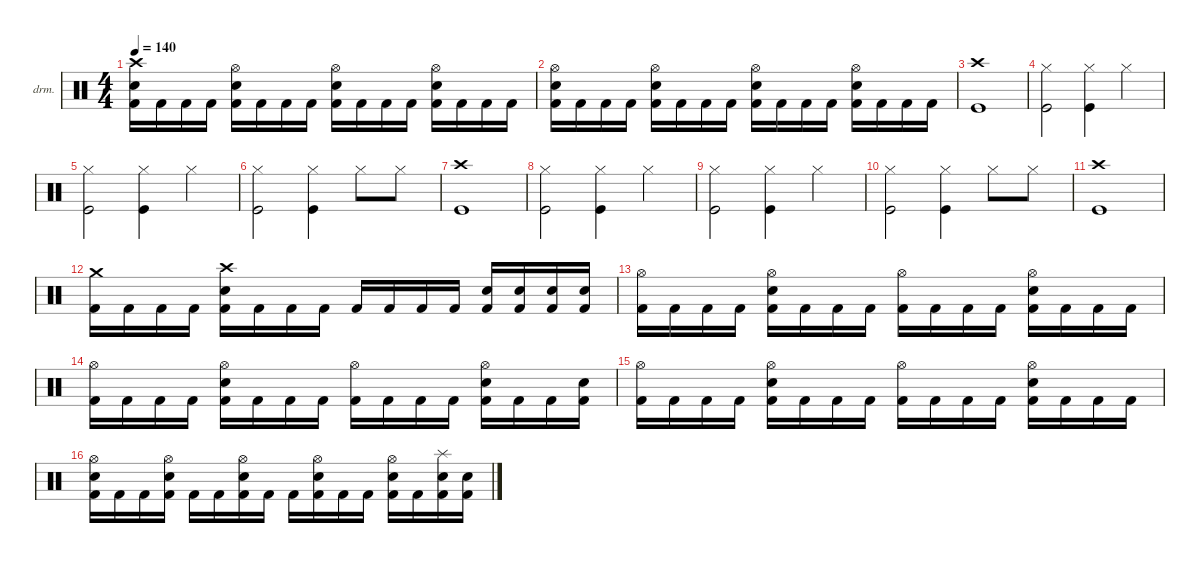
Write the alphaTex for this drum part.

\defaultSystemsLayout 4
\hideDynamics
\bracketExtendMode nobrackets
\firstSystemTrackNameOrientation horizontal
\otherSystemsTrackNameOrientation horizontal
\track ("Drumkit" "drm.") {instrument percussion}
\staff {score}
\articulation defaults
\ts (4 4)
\tempo 140
\clef neutral
\ks c
("Crash high (hit)" "Snare (hit) 2" "Kick (hit) 2").16{dy mf} "Kick (hit) 2".16 "Kick (hit) 2".16 "Kick (hit) 2".16 ("Hi-Hat (open)" "Snare (hit) 2" "Kick (hit) 2").16 "Kick (hit) 2".16 "Kick (hit) 2".16 "Kick (hit) 2".16 ("Hi-Hat (open)" "Snare (hit) 2" "Kick (hit) 2").16 "Kick (hit) 2".16 "Kick (hit) 2".16 "Kick (hit) 2".16 ("Hi-Hat (open)" "Snare (hit) 2" "Kick (hit) 2").16 "Kick (hit) 2".16 "Kick (hit) 2".16 "Kick (hit) 2".16 |
("Hi-Hat (open)" "Snare (hit) 2" "Kick (hit) 2").16 "Kick (hit) 2".16 "Kick (hit) 2".16 "Kick (hit) 2".16 ("Hi-Hat (open)" "Snare (hit) 2" "Kick (hit) 2").16 "Kick (hit) 2".16 "Kick (hit) 2".16 "Kick (hit) 2".16 ("Hi-Hat (open)" "Snare (hit) 2" "Kick (hit) 2").16 "Kick (hit) 2".16 "Kick (hit) 2".16 "Kick (hit) 2".16 ("Hi-Hat (open)" "Snare (hit) 2" "Kick (hit) 2").16 "Kick (hit) 2".16 "Kick (hit) 2".16 "Kick (hit) 2".16 |
("Crash high (hit)" "Kick (hit)").1 |
("Kick (hit)" "Hi-Hat (closed)").2 ("Kick (hit)" "Hi-Hat (closed)").4 "Hi-Hat (closed)".4 |
("Kick (hit)" "Hi-Hat (closed)").2 ("Kick (hit)" "Hi-Hat (closed)").4 "Hi-Hat (closed)".4 |
("Kick (hit)" "Hi-Hat (closed)").2 ("Kick (hit)" "Hi-Hat (closed)").4 "Hi-Hat (closed)".8 "Hi-Hat (closed)".8 |
("Crash high (hit)" "Kick (hit)").1 |
("Kick (hit)" "Hi-Hat (closed)").2 ("Kick (hit)" "Hi-Hat (closed)").4 "Hi-Hat (closed)".4 |
("Kick (hit)" "Hi-Hat (closed)").2 ("Kick (hit)" "Hi-Hat (closed)").4 "Hi-Hat (closed)".4 |
("Kick (hit)" "Hi-Hat (closed)").2 ("Kick (hit)" "Hi-Hat (closed)").4 "Hi-Hat (closed)".8 "Hi-Hat (closed)".8 |
("Crash high (hit)" "Kick (hit)").1 |
("Crash medium (hit)" "Kick (hit) 2").16{dy f} "Kick (hit) 2".16 "Kick (hit) 2".16 "Kick (hit) 2".16 ("Crash high (hit)" "Snare (hit) 2" "Kick (hit) 2").16 "Kick (hit) 2".16 "Kick (hit) 2".16 "Kick (hit) 2".16 "Kick (hit) 2".16 "Kick (hit) 2".16 "Kick (hit) 2".16 "Kick (hit) 2".16 ("Snare (hit) 2" "Kick (hit) 2").16 ("Snare (hit) 2" "Kick (hit) 2").16 ("Snare (hit) 2" "Kick (hit) 2").16 ("Snare (hit) 2" "Kick (hit) 2").16 |
("Hi-Hat (open)" "Kick (hit) 2").16{dy ff} "Kick (hit) 2".16 "Kick (hit) 2".16 "Kick (hit) 2".16 ("Hi-Hat (open)" "Snare (hit) 2" "Kick (hit) 2").16 "Kick (hit) 2".16 "Kick (hit) 2".16 "Kick (hit) 2".16 ("Hi-Hat (open)" "Kick (hit) 2").16 "Kick (hit) 2".16 "Kick (hit) 2".16 "Kick (hit) 2".16 ("Hi-Hat (open)" "Snare (hit) 2" "Kick (hit) 2").16 "Kick (hit) 2".16 "Kick (hit) 2".16 "Kick (hit) 2".16 |
("Hi-Hat (open)" "Kick (hit) 2").16 "Kick (hit) 2".16 "Kick (hit) 2".16 "Kick (hit) 2".16 ("Hi-Hat (open)" "Snare (hit) 2" "Kick (hit) 2").16 "Kick (hit) 2".16 "Kick (hit) 2".16 "Kick (hit) 2".16 ("Hi-Hat (open)" "Kick (hit) 2").16 "Kick (hit) 2".16 "Kick (hit) 2".16 "Kick (hit) 2".16 ("Hi-Hat (open)" "Snare (hit) 2" "Kick (hit) 2").16 "Kick (hit) 2".16 "Kick (hit) 2".16 ("Snare (hit) 2" "Kick (hit) 2").16 |
("Hi-Hat (open)" "Kick (hit) 2").16 "Kick (hit) 2".16 "Kick (hit) 2".16 "Kick (hit) 2".16 ("Hi-Hat (open)" "Snare (hit) 2" "Kick (hit) 2").16 "Kick (hit) 2".16 "Kick (hit) 2".16 "Kick (hit) 2".16 ("Hi-Hat (open)" "Kick (hit) 2").16 "Kick (hit) 2".16 "Kick (hit) 2".16 "Kick (hit) 2".16 ("Hi-Hat (open)" "Snare (hit) 2" "Kick (hit) 2").16 "Kick (hit) 2".16 "Kick (hit) 2".16 "Kick (hit) 2".16 |
("Hi-Hat (open)" "Snare (hit) 2" "Kick (hit) 2").16 "Kick (hit) 2".16 "Kick (hit) 2".16 ("Hi-Hat (open)" "Snare (hit) 2" "Kick (hit) 2").16 "Kick (hit) 2".16 "Kick (hit) 2".16 ("Hi-Hat (open)" "Snare (hit) 2" "Kick (hit) 2").16 "Kick (hit) 2".16 "Kick (hit) 2".16 ("Hi-Hat (open)" "Snare (hit) 2" "Kick (hit) 2").16 "Kick (hit) 2".16 "Kick (hit) 2".16 ("Hi-Hat (open)" "Snare (hit) 2" "Kick (hit) 2").16 "Kick (hit) 2".16 ("Splash (hit)" "Snare (hit) 2" "Kick (hit) 2").16 ("Snare (hit) 2" "Kick (hit) 2").16
